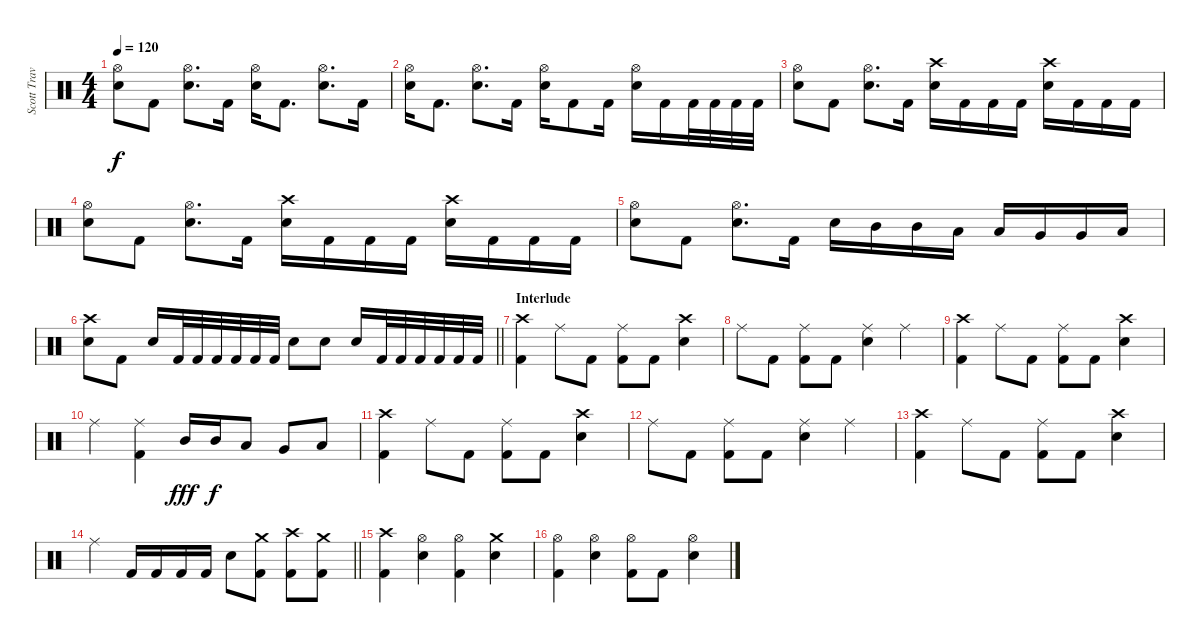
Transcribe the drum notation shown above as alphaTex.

\track ("Scott Travis" "Scott Trav") {instrument percussion}
\staff {score}
\articulation defaults
\ts (4 4)
\tempo 120
\clef neutral
\ks c
("Hi-Hat (open)" "Snare (hit) 2").8{dy f} "Kick (hit) 2".8 ("Hi-Hat (open)" "Snare (hit) 2").8{d} "Kick (hit) 2".16 ("Hi-Hat (open)" "Snare (hit) 2").16 "Kick (hit) 2".8{d} ("Hi-Hat (open)" "Snare (hit) 2").8{d} "Kick (hit) 2".16 |
("Hi-Hat (open)" "Snare (hit) 2").16 "Kick (hit) 2".8{d} ("Hi-Hat (open)" "Snare (hit) 2").8{d} "Kick (hit) 2".16 ("Hi-Hat (open)" "Snare (hit) 2").16 "Kick (hit) 2".8 "Kick (hit) 2".16 ("Hi-Hat (open)" "Snare (hit) 2").16 "Kick (hit) 2".16 "Kick (hit) 2".32 "Kick (hit) 2".32 "Kick (hit) 2".32 "Kick (hit) 2".32 |
("Hi-Hat (open)" "Snare (hit) 2").8 "Kick (hit) 2".8 ("Hi-Hat (open)" "Snare (hit) 2").8{d} "Kick (hit) 2".16 ("Crash high (hit)" "Snare (hit) 2").16 "Kick (hit) 2".16 "Kick (hit) 2".16 "Kick (hit) 2".16 ("Crash high (hit)" "Snare (hit) 2").16 "Kick (hit) 2".16 "Kick (hit) 2".16 "Kick (hit) 2".16 |
("Hi-Hat (open)" "Snare (hit) 2").8 "Kick (hit) 2".8 ("Hi-Hat (open)" "Snare (hit) 2").8{d} "Kick (hit) 2".16 ("Crash high (hit)" "Snare (hit) 2").16 "Kick (hit) 2".16 "Kick (hit) 2".16 "Kick (hit) 2".16 ("Crash high (hit)" "Snare (hit) 2").16 "Kick (hit) 2".16 "Kick (hit) 2".16 "Kick (hit) 2".16 |
("Hi-Hat (open)" "Snare (hit) 2").8 "Kick (hit) 2".8 ("Hi-Hat (open)" "Snare (hit) 2").8{d} "Kick (hit) 2".16 "Snare (hit) 2".16 "Mid Tom (hit)".16 "Mid Tom (hit)".16 "Low Tom (hit)".16 "Low Tom (hit)".16 "Very Low Tom (hit)".16 "Very Low Tom (hit)".16 "Low Floor Tom (hit)".16 |
\barLineRight lightlight
("Crash high (hit)" "Snare (hit) 2").8 "Kick (hit) 2".8 "Snare (hit) 2".16 "Kick (hit) 2".32 "Kick (hit) 2".32 "Kick (hit) 2".32 "Kick (hit) 2".32 "Kick (hit) 2".32 "Kick (hit) 2".32 "Snare (hit) 2".8 "Snare (hit) 2".8 "Snare (hit) 2".16 "Kick (hit) 2".32 "Kick (hit) 2".32 "Kick (hit) 2".32 "Kick (hit) 2".32 "Kick (hit) 2".32 "Kick (hit) 2".32 |
\section ("" "Interlude")
("Crash high (hit)" "Kick (hit) 2").4 "Ride (middle)".8 "Kick (hit) 2".8 ("Ride (middle)" "Kick (hit) 2").8 "Kick (hit) 2".8 ("Crash high (hit)" "Snare (hit) 2").4 |
"Ride (middle)".8 "Kick (hit) 2".8 ("Ride (middle)" "Kick (hit) 2").8 "Kick (hit) 2".8 ("Ride (middle)" "Snare (hit) 2").4 "Ride (middle)".4 |
("Crash high (hit)" "Kick (hit) 2").4 "Ride (middle)".8 "Kick (hit) 2".8 ("Ride (middle)" "Kick (hit) 2").8 "Kick (hit) 2".8 ("Crash high (hit)" "Snare (hit) 2").4 |
"Ride (middle)".4 ("Ride (middle)" "Kick (hit) 2").4 "Mid Tom (hit)".16{dy fff} "Mid Tom (hit)".16{dy f} "Low Tom (hit)".8 "Very Low Tom (hit)".8 "Low Floor Tom (hit)".8 |
("Crash high (hit)" "Kick (hit) 2").4 "Ride (middle)".8 "Kick (hit) 2".8 ("Ride (middle)" "Kick (hit) 2").8 "Kick (hit) 2".8 ("Crash high (hit)" "Snare (hit) 2").4 |
"Ride (middle)".8 "Kick (hit) 2".8 ("Ride (middle)" "Kick (hit) 2").8 "Kick (hit) 2".8 ("Ride (middle)" "Snare (hit) 2").4 "Ride (middle)".4 |
("Crash high (hit)" "Kick (hit) 2").4 "Ride (middle)".8 "Kick (hit) 2".8 ("Ride (middle)" "Kick (hit) 2").8 "Kick (hit) 2".8 ("Crash high (hit)" "Snare (hit) 2").4 |
\barLineRight lightlight "Ride (middle)".4 "Kick (hit) 2".16 "Kick (hit) 2".16 "Kick (hit) 2".16 "Kick (hit) 2".16 "Snare (hit) 2".8
("Crash medium (hit)" "Kick (hit) 2").8 ("Crash high (hit)" "Kick (hit) 2").8 ("Crash medium (hit)" "Kick (hit) 2").8 |
("Crash high (hit)" "Kick (hit) 2").4 ("Hi-Hat (open)" "Snare (hit) 2").4 ("Hi-Hat (open)" "Kick (hit) 2").4 ("Crash medium (hit)" "Snare (hit) 2").4 |
("Hi-Hat (open)" "Kick (hit) 2").4 ("Hi-Hat (open)" "Snare (hit) 2").4 ("Hi-Hat (open)" "Kick (hit) 2").8 "Kick (hit) 2".8 ("Hi-Hat (open)" "Snare (hit) 2").4
